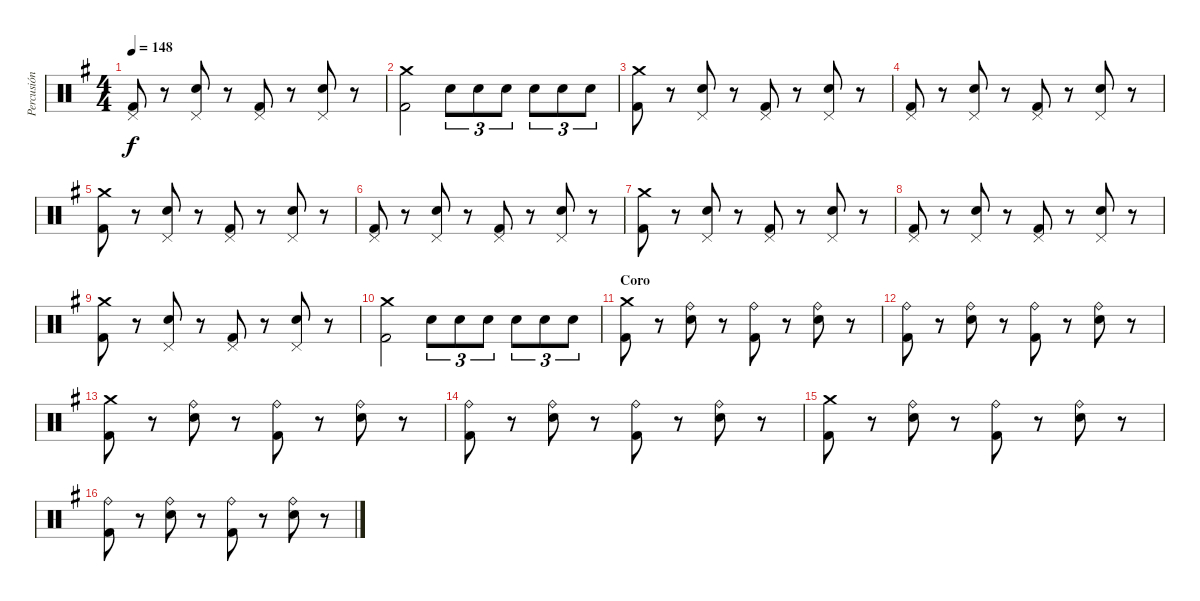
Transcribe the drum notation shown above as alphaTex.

\track ("Percusión" "Percusión") {instrument percussion}
\staff {score}
\articulation defaults
\ts (4 4)
\tempo 148
\clef neutral
\ks g
("Pedal Hi-Hat (hit)" "Kick (hit) 2").8{dy f} r.8 ("Pedal Hi-Hat (hit)" "Snare (hit) 2").8 r.8 ("Pedal Hi-Hat (hit)" "Kick (hit) 2").8 r.8 ("Pedal Hi-Hat (hit)" "Snare (hit) 2").8 r.8 |
("Crash medium (hit)" "Kick (hit) 2").2 "Snare (hit) 2".8{tu (3 2)} "Snare (hit) 2".8{tu (3 2)} "Snare (hit) 2".8{tu (3 2)} "Snare (hit) 2".8{tu (3 2)} "Snare (hit) 2".8{tu (3 2)} "Snare (hit) 2".8{tu (3 2)} |
("Crash medium (hit)" "Kick (hit) 2").8 r.8 ("Pedal Hi-Hat (hit)" "Snare (hit) 2").8 r.8 ("Pedal Hi-Hat (hit)" "Kick (hit) 2").8 r.8 ("Pedal Hi-Hat (hit)" "Snare (hit) 2").8 r.8 |
("Pedal Hi-Hat (hit)" "Kick (hit) 2").8 r.8 ("Pedal Hi-Hat (hit)" "Snare (hit) 2").8 r.8 ("Pedal Hi-Hat (hit)" "Kick (hit) 2").8 r.8 ("Pedal Hi-Hat (hit)" "Snare (hit) 2").8 r.8 |
("Crash medium (hit)" "Kick (hit) 2").8 r.8 ("Pedal Hi-Hat (hit)" "Snare (hit) 2").8 r.8 ("Pedal Hi-Hat (hit)" "Kick (hit) 2").8 r.8 ("Pedal Hi-Hat (hit)" "Snare (hit) 2").8 r.8 |
("Pedal Hi-Hat (hit)" "Kick (hit) 2").8 r.8 ("Pedal Hi-Hat (hit)" "Snare (hit) 2").8 r.8 ("Pedal Hi-Hat (hit)" "Kick (hit) 2").8 r.8 ("Pedal Hi-Hat (hit)" "Snare (hit) 2").8 r.8 |
("Crash medium (hit)" "Kick (hit) 2").8 r.8 ("Pedal Hi-Hat (hit)" "Snare (hit) 2").8 r.8 ("Pedal Hi-Hat (hit)" "Kick (hit) 2").8 r.8 ("Pedal Hi-Hat (hit)" "Snare (hit) 2").8 r.8 |
("Pedal Hi-Hat (hit)" "Kick (hit) 2").8 r.8 ("Pedal Hi-Hat (hit)" "Snare (hit) 2").8 r.8 ("Pedal Hi-Hat (hit)" "Kick (hit) 2").8 r.8 ("Pedal Hi-Hat (hit)" "Snare (hit) 2").8 r.8 |
("Crash medium (hit)" "Kick (hit) 2").8 r.8 ("Pedal Hi-Hat (hit)" "Snare (hit) 2").8 r.8 ("Pedal Hi-Hat (hit)" "Kick (hit) 2").8 r.8 ("Pedal Hi-Hat (hit)" "Snare (hit) 2").8 r.8 |
("Crash medium (hit)" "Kick (hit) 2").2 "Snare (hit) 2".8{tu (3 2)} "Snare (hit) 2".8{tu (3 2)} "Snare (hit) 2".8{tu (3 2)} "Snare (hit) 2".8{tu (3 2)} "Snare (hit) 2".8{tu (3 2)} "Snare (hit) 2".8{tu (3 2)} |
\section ("" "Coro")
("Crash medium (hit)" "Kick (hit) 2").8 r.8 ("Ride (bell)" "Snare (hit) 2").8 r.8 ("Ride (bell)" "Kick (hit) 2").8 r.8 ("Ride (bell)" "Snare (hit) 2").8 r.8 |
("Ride (bell)" "Kick (hit) 2").8 r.8 ("Ride (bell)" "Snare (hit) 2").8 r.8 ("Ride (bell)" "Kick (hit) 2").8 r.8 ("Ride (bell)" "Snare (hit) 2").8 r.8 |
("Crash medium (hit)" "Kick (hit) 2").8 r.8 ("Ride (bell)" "Snare (hit) 2").8 r.8 ("Ride (bell)" "Kick (hit) 2").8 r.8 ("Ride (bell)" "Snare (hit) 2").8 r.8 |
("Ride (bell)" "Kick (hit) 2").8 r.8 ("Ride (bell)" "Snare (hit) 2").8 r.8 ("Ride (bell)" "Kick (hit) 2").8 r.8 ("Ride (bell)" "Snare (hit) 2").8 r.8 |
("Crash medium (hit)" "Kick (hit) 2").8 r.8 ("Ride (bell)" "Snare (hit) 2").8 r.8 ("Ride (bell)" "Kick (hit) 2").8 r.8 ("Ride (bell)" "Snare (hit) 2").8 r.8 |
("Ride (bell)" "Kick (hit) 2").8 r.8 ("Ride (bell)" "Snare (hit) 2").8 r.8 ("Ride (bell)" "Kick (hit) 2").8 r.8 ("Ride (bell)" "Snare (hit) 2").8 r.8
